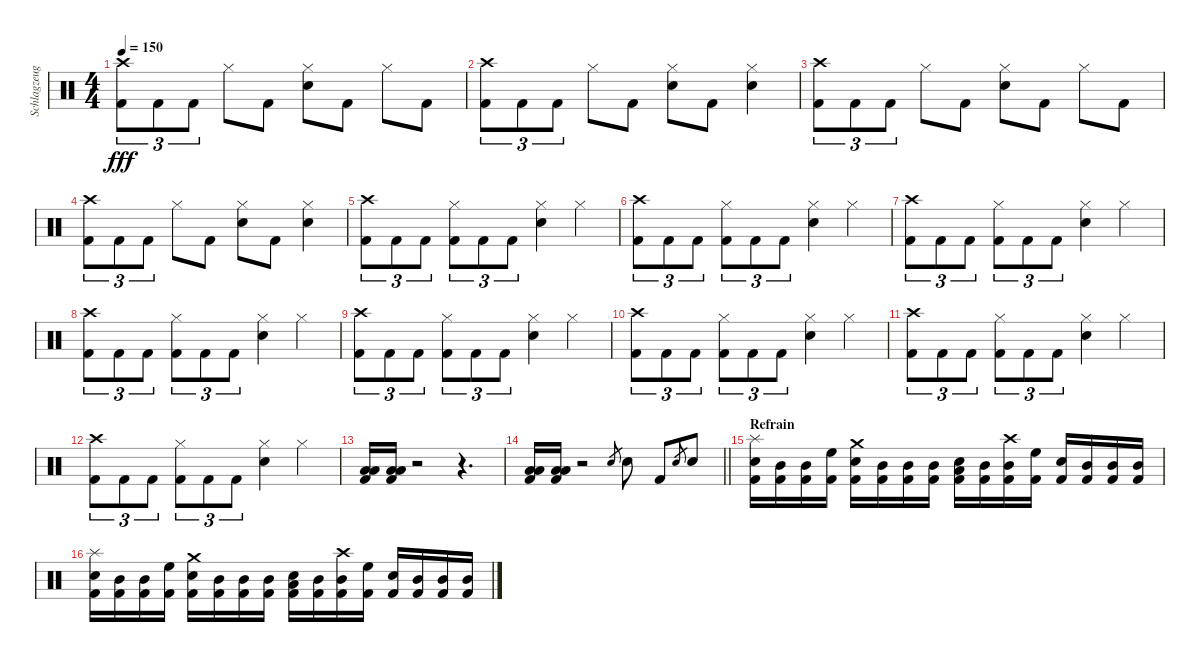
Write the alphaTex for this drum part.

\track ("Schlagzeug" "Schlagzeug") {instrument percussion}
\staff {score}
\articulation defaults
\ts (4 4)
\tempo 150
\clef neutral
\ks c
("Crash high (hit)" "Kick (hit) 2").8{tu (3 2) dy fff} "Kick (hit) 2".8{tu (3 2)} "Kick (hit) 2".8{tu (3 2)} "Hi-Hat (closed)".8 "Kick (hit) 2".8 ("Hi-Hat (closed)" "Snare (hit) 2").8 "Kick (hit) 2".8 "Hi-Hat (closed)".8 "Kick (hit) 2".8 |
("Crash high (hit)" "Kick (hit) 2").8{tu (3 2)} "Kick (hit) 2".8{tu (3 2)} "Kick (hit) 2".8{tu (3 2)} "Hi-Hat (closed)".8 "Kick (hit) 2".8 ("Hi-Hat (closed)" "Snare (hit) 2").8 "Kick (hit) 2".8 ("Hi-Hat (closed)" "Snare (hit) 2").4 |
("Crash high (hit)" "Kick (hit) 2").8{tu (3 2)} "Kick (hit) 2".8{tu (3 2)} "Kick (hit) 2".8{tu (3 2)} "Hi-Hat (closed)".8 "Kick (hit) 2".8 ("Hi-Hat (closed)" "Snare (hit) 2").8 "Kick (hit) 2".8 "Hi-Hat (closed)".8 "Kick (hit) 2".8 |
("Crash high (hit)" "Kick (hit) 2").8{tu (3 2)} "Kick (hit) 2".8{tu (3 2)} "Kick (hit) 2".8{tu (3 2)} "Hi-Hat (closed)".8 "Kick (hit) 2".8 ("Hi-Hat (closed)" "Snare (hit) 2").8 "Kick (hit) 2".8 ("Hi-Hat (closed)" "Snare (hit) 2").4 |
("Crash high (hit)" "Kick (hit) 2").8{tu (3 2)} "Kick (hit) 2".8{tu (3 2)} "Kick (hit) 2".8{tu (3 2)} ("Hi-Hat (closed)" "Kick (hit) 2").8{tu (3 2)} "Kick (hit) 2".8{tu (3 2)} "Kick (hit) 2".8{tu (3 2)} ("Hi-Hat (closed)" "Snare (hit) 2").4 "Hi-Hat (closed)".4 |
("Crash high (hit)" "Kick (hit) 2").8{tu (3 2)} "Kick (hit) 2".8{tu (3 2)} "Kick (hit) 2".8{tu (3 2)} ("Hi-Hat (closed)" "Kick (hit) 2").8{tu (3 2)} "Kick (hit) 2".8{tu (3 2)} "Kick (hit) 2".8{tu (3 2)} ("Hi-Hat (closed)" "Snare (hit) 2").4 "Hi-Hat (closed)".4 |
("Crash high (hit)" "Kick (hit) 2").8{tu (3 2)} "Kick (hit) 2".8{tu (3 2)} "Kick (hit) 2".8{tu (3 2)} ("Hi-Hat (closed)" "Kick (hit) 2").8{tu (3 2)} "Kick (hit) 2".8{tu (3 2)} "Kick (hit) 2".8{tu (3 2)} ("Hi-Hat (closed)" "Snare (hit) 2").4 "Hi-Hat (closed)".4 |
("Crash high (hit)" "Kick (hit) 2").8{tu (3 2)} "Kick (hit) 2".8{tu (3 2)} "Kick (hit) 2".8{tu (3 2)} ("Hi-Hat (closed)" "Kick (hit) 2").8{tu (3 2)} "Kick (hit) 2".8{tu (3 2)} "Kick (hit) 2".8{tu (3 2)} ("Hi-Hat (closed)" "Snare (hit) 2").4 "Hi-Hat (closed)".4 |
("Crash high (hit)" "Kick (hit) 2").8{tu (3 2)} "Kick (hit) 2".8{tu (3 2)} "Kick (hit) 2".8{tu (3 2)} ("Hi-Hat (closed)" "Kick (hit) 2").8{tu (3 2)} "Kick (hit) 2".8{tu (3 2)} "Kick (hit) 2".8{tu (3 2)} ("Hi-Hat (closed)" "Snare (hit) 2").4 "Hi-Hat (closed)".4 |
("Crash high (hit)" "Kick (hit) 2").8{tu (3 2)} "Kick (hit) 2".8{tu (3 2)} "Kick (hit) 2".8{tu (3 2)} ("Hi-Hat (closed)" "Kick (hit) 2").8{tu (3 2)} "Kick (hit) 2".8{tu (3 2)} "Kick (hit) 2".8{tu (3 2)} ("Hi-Hat (closed)" "Snare (hit) 2").4 "Hi-Hat (closed)".4 |
("Crash high (hit)" "Kick (hit) 2").8{tu (3 2)} "Kick (hit) 2".8{tu (3 2)} "Kick (hit) 2".8{tu (3 2)} ("Hi-Hat (closed)" "Kick (hit) 2").8{tu (3 2)} "Kick (hit) 2".8{tu (3 2)} "Kick (hit) 2".8{tu (3 2)} ("Hi-Hat (closed)" "Snare (hit) 2").4 "Hi-Hat (closed)".4 |
("Crash high (hit)" "Kick (hit) 2").8{tu (3 2)} "Kick (hit) 2".8{tu (3 2)} "Kick (hit) 2".8{tu (3 2)} ("Hi-Hat (closed)" "Kick (hit) 2").8{tu (3 2)} "Kick (hit) 2".8{tu (3 2)} "Kick (hit) 2".8{tu (3 2)} ("Hi-Hat (closed)" "Snare (hit) 2").4 "Hi-Hat (closed)".4 |
("Low Floor Tom (hit)" "Low Tom (hit)" "Kick (hit) 2").16 ("Low Floor Tom (hit)" "Low Tom (hit)" "Kick (hit) 2").16 r.2 r.4{d} |
\barLineRight lightlight
("Low Floor Tom (hit)" "Low Tom (hit)" "Kick (hit) 2").16 ("Low Floor Tom (hit)" "Low Tom (hit)" "Kick (hit) 2").16 r.2 "Snare (hit) 2".8{gr} "Snare (hit) 2".8 "Kick (hit) 2".8 "Snare (hit) 2".8{gr} "Snare (hit) 2".8 |
\section ("" "Refrain")
("Snare (hit) 2" "Splash (hit)" "Kick (hit) 2").16 ("Mid Tom (hit)" "Kick (hit) 2").16 ("Mid Tom (hit)" "Kick (hit) 2").16 ("High Floor Tom (hit)" "Kick (hit) 2").16 ("Snare (hit) 2" "Crash medium (hit)" "Kick (hit) 2").16 ("Mid Tom (hit)" "Kick (hit) 2").16 ("Mid Tom (hit)" "Kick (hit) 2").16 ("Mid Tom (hit)" "Kick (hit) 2").16 ("Snare (hit) 2" "Low Tom (hit)" "Kick (hit) 2").16 ("Mid Tom (hit)" "Kick (hit) 2").16 ("Mid Tom (hit)" "Crash high (hit)" "Kick (hit) 2").16 ("High Floor Tom (hit)" "Kick (hit) 2").16 ("Snare (hit) 2" "Kick (hit) 2").16 ("Mid Tom (hit)" "Kick (hit) 2").16 ("Mid Tom (hit)" "Kick (hit) 2").16 ("Mid Tom (hit)" "Kick (hit) 2").16 |
("Snare (hit) 2" "Splash (hit)" "Kick (hit) 2").16 ("Mid Tom (hit)" "Kick (hit) 2").16 ("Mid Tom (hit)" "Kick (hit) 2").16 ("High Floor Tom (hit)" "Kick (hit) 2").16 ("Snare (hit) 2" "Crash medium (hit)" "Kick (hit) 2").16 ("Mid Tom (hit)" "Kick (hit) 2").16 ("Mid Tom (hit)" "Kick (hit) 2").16 ("Mid Tom (hit)" "Kick (hit) 2").16 ("Snare (hit) 2" "Low Tom (hit)" "Kick (hit) 2").16 ("Mid Tom (hit)" "Kick (hit) 2").16 ("Mid Tom (hit)" "Crash high (hit)" "Kick (hit) 2").16 ("High Floor Tom (hit)" "Kick (hit) 2").16 ("Snare (hit) 2" "Kick (hit) 2").16 ("Mid Tom (hit)" "Kick (hit) 2").16 ("Mid Tom (hit)" "Kick (hit) 2").16 ("Mid Tom (hit)" "Kick (hit) 2").16
